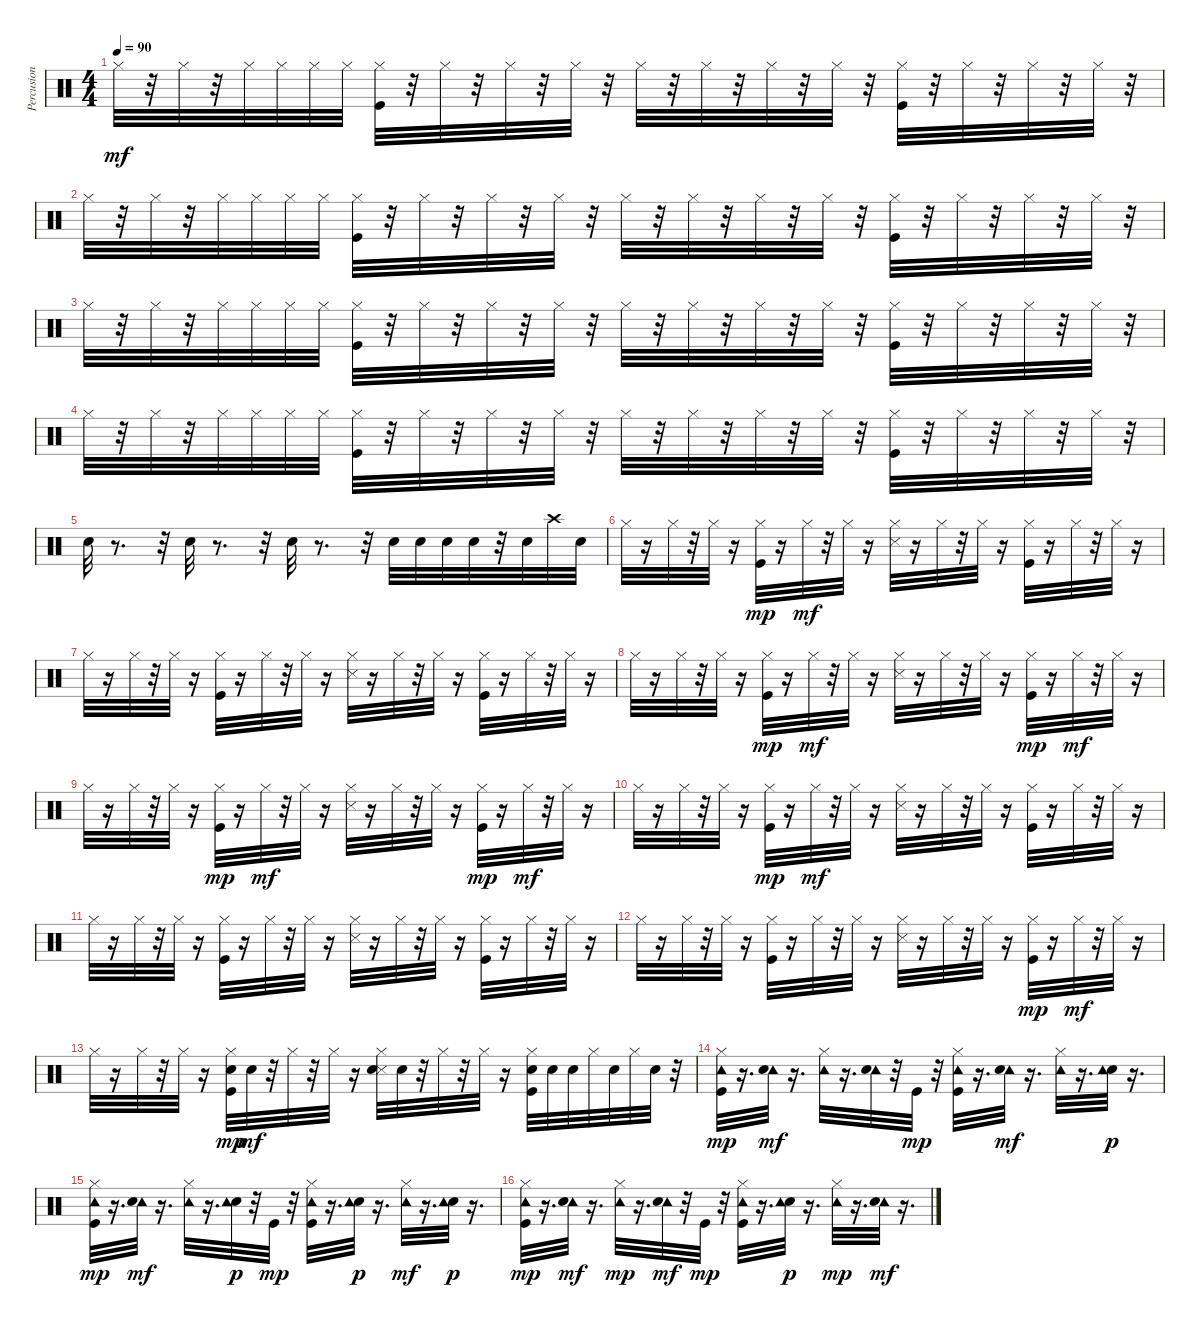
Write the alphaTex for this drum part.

\track ("Percusion" "Percusion") {instrument percussion}
\staff {score}
\articulation defaults
\ts (4 4)
\tempo 90
\clef neutral
\ks c "Hi-Hat (closed)".32{dy mf}
r.32 "Hi-Hat (closed)".32 r.32 "Hi-Hat (closed)".32 "Hi-Hat (closed)".32 "Hi-Hat (closed)".32 "Hi-Hat (closed)".32 ("Hi-Hat (closed)" "Kick (hit)").32 r.32 "Hi-Hat (closed)".32 r.32 "Hi-Hat (closed)".32 r.32 "Hi-Hat (closed)".32 r.32 "Hi-Hat (closed)".32 r.32 "Hi-Hat (closed)".32 r.32 "Hi-Hat (closed)".32 r.32 "Hi-Hat (closed)".32 r.32 ("Kick (hit)" "Hi-Hat (closed)").32 r.32 "Hi-Hat (closed)".32 r.32 "Hi-Hat (closed)".32 r.32 "Hi-Hat (closed)".32 r.32 |
"Hi-Hat (closed)".32 r.32 "Hi-Hat (closed)".32 r.32 "Hi-Hat (closed)".32 "Hi-Hat (closed)".32 "Hi-Hat (closed)".32 "Hi-Hat (closed)".32 ("Hi-Hat (closed)" "Kick (hit)").32 r.32 "Hi-Hat (closed)".32 r.32 "Hi-Hat (closed)".32 r.32 "Hi-Hat (closed)".32 r.32 "Hi-Hat (closed)".32 r.32 "Hi-Hat (closed)".32 r.32 "Hi-Hat (closed)".32 r.32 "Hi-Hat (closed)".32 r.32 ("Kick (hit)" "Hi-Hat (closed)").32 r.32 "Hi-Hat (closed)".32 r.32 "Hi-Hat (closed)".32 r.32 "Hi-Hat (closed)".32 r.32 |
"Hi-Hat (closed)".32 r.32 "Hi-Hat (closed)".32 r.32 "Hi-Hat (closed)".32 "Hi-Hat (closed)".32 "Hi-Hat (closed)".32 "Hi-Hat (closed)".32 ("Hi-Hat (closed)" "Kick (hit)").32 r.32 "Hi-Hat (closed)".32 r.32 "Hi-Hat (closed)".32 r.32 "Hi-Hat (closed)".32 r.32 "Hi-Hat (closed)".32 r.32 "Hi-Hat (closed)".32 r.32 "Hi-Hat (closed)".32 r.32 "Hi-Hat (closed)".32 r.32 ("Hi-Hat (closed)" "Kick (hit)").32 r.32 "Hi-Hat (closed)".32 r.32 "Hi-Hat (closed)".32 r.32 "Hi-Hat (closed)".32 r.32 |
"Hi-Hat (closed)".32 r.32 "Hi-Hat (closed)".32 r.32 "Hi-Hat (closed)".32 "Hi-Hat (closed)".32 "Hi-Hat (closed)".32 "Hi-Hat (closed)".32 ("Kick (hit)" "Hi-Hat (closed)").32 r.32 "Hi-Hat (closed)".32 r.32 "Hi-Hat (closed)".32 r.32 "Hi-Hat (closed)".32 r.32 "Hi-Hat (closed)".32 r.32 "Hi-Hat (closed)".32 r.32 "Hi-Hat (closed)".32 r.32 "Hi-Hat (closed)".32 r.32 ("Hi-Hat (closed)" "Kick (hit)").32 r.32 "Hi-Hat (closed)".32 r.32 "Hi-Hat (closed)".32 r.32 "Hi-Hat (closed)".32 r.32 |
"Snare (hit) 2".32 r.8{d} r.32 "Snare (hit) 2".32 r.8{d} r.32 "Snare (hit) 2".32 r.8{d} r.32 "Snare (hit) 2".32 "Snare (hit) 2".32 "Snare (hit) 2".32 "Snare (hit) 2".32 r.32 "Snare (hit) 2".32 "Crash high (hit)".32 "Snare (hit) 2".32 |
"Hi-Hat (closed)".32 r.16 "Hi-Hat (closed)".32 r.32 "Hi-Hat (closed)".32 r.16 ("Hi-Hat (closed)" "Kick (hit)").32{dy mp} r.16 "Hi-Hat (closed)".32{dy mf} r.32 "Hi-Hat (closed)".32 r.16 ("Hi-Hat (closed)" "Snare (side stick) 3").32 r.16 "Hi-Hat (closed)".32 r.32 "Hi-Hat (closed)".32 r.16 ("Kick (hit)" "Hi-Hat (closed)").32 r.16 "Hi-Hat (closed)".32 r.32 "Hi-Hat (closed)".32 r.16 |
"Hi-Hat (closed)".32 r.16 "Hi-Hat (closed)".32 r.32 "Hi-Hat (closed)".32 r.16 ("Kick (hit)" "Hi-Hat (closed)").32 r.16 "Hi-Hat (closed)".32 r.32 "Hi-Hat (closed)".32 r.16 ("Snare (side stick) 3" "Hi-Hat (closed)").32 r.16 "Hi-Hat (closed)".32 r.32 "Hi-Hat (closed)".32 r.16 ("Kick (hit)" "Hi-Hat (closed)").32 r.16 "Hi-Hat (closed)".32 r.32 "Hi-Hat (closed)".32 r.16 |
"Hi-Hat (closed)".32 r.16 "Hi-Hat (closed)".32 r.32 "Hi-Hat (closed)".32 r.16 ("Hi-Hat (closed)" "Kick (hit)").32{dy mp} r.16 "Hi-Hat (closed)".32{dy mf} r.32 "Hi-Hat (closed)".32 r.16 ("Hi-Hat (closed)" "Snare (side stick) 3").32 r.16 "Hi-Hat (closed)".32 r.32 "Hi-Hat (closed)".32 r.16 ("Hi-Hat (closed)" "Kick (hit)").32{dy mp} r.16 "Hi-Hat (closed)".32{dy mf} r.32 "Hi-Hat (closed)".32 r.16 |
"Hi-Hat (closed)".32 r.16 "Hi-Hat (closed)".32 r.32 "Hi-Hat (closed)".32 r.16 ("Hi-Hat (closed)" "Kick (hit)").32{dy mp} r.16 "Hi-Hat (closed)".32{dy mf} r.32 "Hi-Hat (closed)".32 r.16 ("Snare (side stick) 3" "Hi-Hat (closed)").32 r.16 "Hi-Hat (closed)".32 r.32 "Hi-Hat (closed)".32 r.16 ("Hi-Hat (closed)" "Kick (hit)").32{dy mp} r.16 "Hi-Hat (closed)".32{dy mf} r.32 "Hi-Hat (closed)".32 r.16 |
"Hi-Hat (closed)".32 r.16 "Hi-Hat (closed)".32 r.32 "Hi-Hat (closed)".32 r.16 ("Hi-Hat (closed)" "Kick (hit)").32{dy mp} r.16 "Hi-Hat (closed)".32{dy mf} r.32 "Hi-Hat (closed)".32 r.16 ("Hi-Hat (closed)" "Snare (side stick) 3").32 r.16 "Hi-Hat (closed)".32 r.32 "Hi-Hat (closed)".32 r.16 ("Kick (hit)" "Hi-Hat (closed)").32 r.16 "Hi-Hat (closed)".32 r.32 "Hi-Hat (closed)".32 r.16 |
"Hi-Hat (closed)".32 r.16 "Hi-Hat (closed)".32 r.32 "Hi-Hat (closed)".32 r.16 ("Kick (hit)" "Hi-Hat (closed)").32 r.16 "Hi-Hat (closed)".32 r.32 "Hi-Hat (closed)".32 r.16 ("Snare (side stick) 3" "Hi-Hat (closed)").32 r.16 "Hi-Hat (closed)".32 r.32 "Hi-Hat (closed)".32 r.16 ("Kick (hit)" "Hi-Hat (closed)").32 r.16 "Hi-Hat (closed)".32 r.32 "Hi-Hat (closed)".32 r.16 |
"Hi-Hat (closed)".32 r.16 "Hi-Hat (closed)".32 r.32 "Hi-Hat (closed)".32 r.16 ("Kick (hit)" "Hi-Hat (closed)").32 r.16 "Hi-Hat (closed)".32 r.32 "Hi-Hat (closed)".32 r.16 ("Hi-Hat (closed)" "Snare (side stick) 3").32 r.16 "Hi-Hat (closed)".32 r.32 "Hi-Hat (closed)".32 r.16 ("Hi-Hat (closed)" "Kick (hit)").32{dy mp} r.16 "Hi-Hat (closed)".32{dy mf} r.32 "Hi-Hat (closed)".32 r.16 |
"Hi-Hat (closed)".32 r.16 "Hi-Hat (closed)".32 r.32 "Hi-Hat (closed)".32 r.16 ("Snare (hit) 2" "Hi-Hat (closed)" "Kick (hit)").32{dy mp} "Snare (hit) 2".32{dy mf} r.32 "Hi-Hat (closed)".32 r.32 "Hi-Hat (closed)".32 r.16 ("Hi-Hat (closed)" "Snare (side stick) 3" "Snare (hit) 2").32 "Snare (hit) 2".32 r.32 "Hi-Hat (closed)".32 r.32 "Hi-Hat (closed)".32 r.16 ("Hi-Hat (closed)" "Kick (hit)" "Snare (hit) 2").32 "Snare (hit) 2".32 "Snare (hit) 2".32 "Hi-Hat (closed)".32 "Snare (hit) 2".32 "Hi-Hat (closed)".32 "Snare (hit) 2".32 r.32 |
("Tambourine (hit)" "Hi-Hat (closed)" "Kick (hit)").32{dy mp} r.16{d} ("Tambourine (hit)" "Snare (hit) 2").32{dy mf} r.16{d} ("Tambourine (hit)" "Hi-Hat (closed)").32 r.16{d} ("Tambourine (hit)" "Snare (hit) 2").32 r.32 "Kick (hit)".32{dy mp} r.32 ("Hi-Hat (closed)" "Kick (hit)" "Tambourine (hit)").32 r.16{d} ("Tambourine (hit)" "Snare (hit) 2").32{dy mf} r.16{d} ("Tambourine (hit)" "Hi-Hat (closed)").32 r.16{d} ("Snare (hit) 2" "Tambourine (hit)").32{dy p} r.16{d} |
("Hi-Hat (closed)" "Kick (hit)" "Tambourine (hit)").32{dy mp} r.16{d} ("Tambourine (hit)" "Snare (hit) 2").32{dy mf} r.16{d} ("Tambourine (hit)" "Hi-Hat (closed)").32 r.16{d} ("Snare (hit) 2" "Tambourine (hit)").32{dy p} r.32 "Kick (hit)".32{dy mp} r.32 ("Kick (hit)" "Hi-Hat (closed)" "Tambourine (hit)").32 r.16{d} ("Snare (hit) 2" "Tambourine (hit)").32{dy p} r.16{d} ("Tambourine (hit)" "Hi-Hat (closed)").32{dy mf} r.16{d} ("Snare (hit) 2" "Tambourine (hit)").32{dy p} r.16{d} |
("Tambourine (hit)" "Hi-Hat (closed)" "Kick (hit)").32{dy mp} r.16{d} ("Tambourine (hit)" "Snare (hit) 2").32{dy mf} r.16{d} ("Hi-Hat (closed)" "Tambourine (hit)").32{dy mp} r.16{d} ("Tambourine (hit)" "Snare (hit) 2").32{dy mf} r.32 "Kick (hit)".32{dy mp} r.32 ("Hi-Hat (closed)" "Tambourine (hit)" "Kick (hit)").32 r.16{d} ("Snare (hit) 2" "Tambourine (hit)").32{dy p} r.16{d} ("Hi-Hat (closed)" "Tambourine (hit)").32{dy mp} r.16{d} ("Tambourine (hit)" "Snare (hit) 2").32{dy mf} r.16{d}
